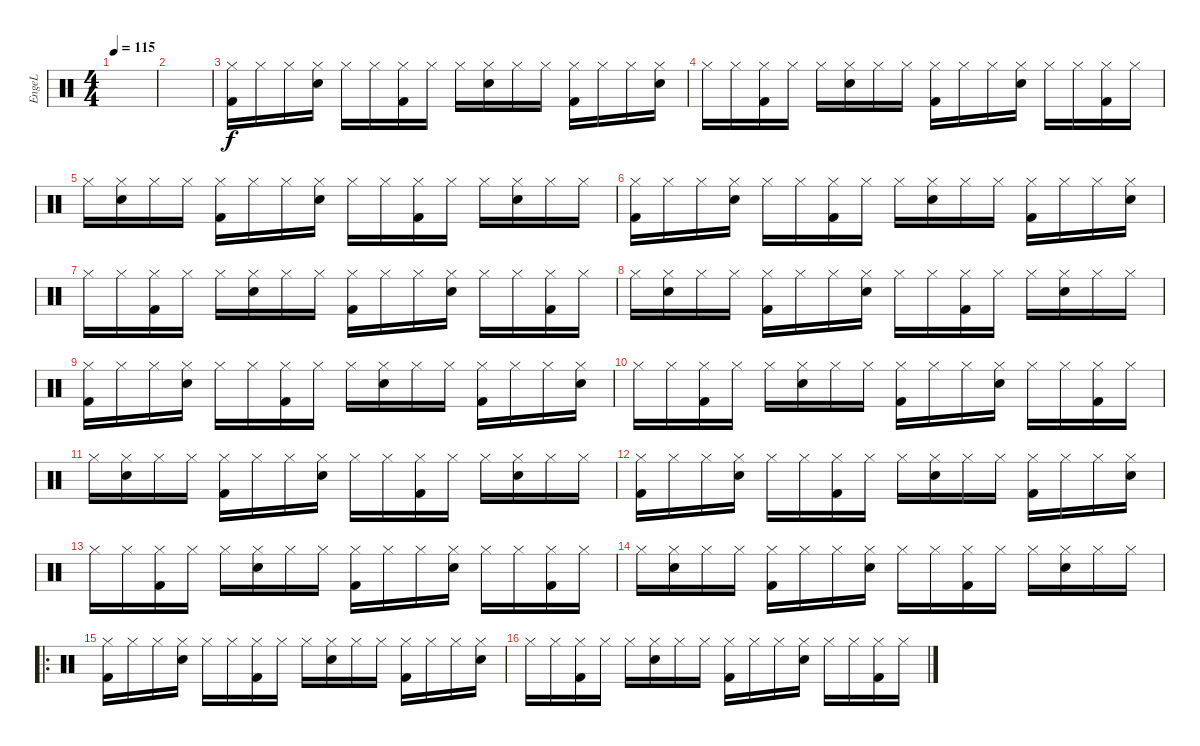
\track ("EngeL" "EngeL") {instrument percussion}
\staff {score}
\articulation defaults
\ts (4 4)
\tempo 115
\clef neutral
\ks c
|
|
("Hi-Hat (closed)" "Kick (hit) 2").16{dy f} "Hi-Hat (closed)".16 "Hi-Hat (closed)".16 ("Hi-Hat (closed)" "Snare (hit) 2").16 "Hi-Hat (closed)".16 "Hi-Hat (closed)".16 ("Hi-Hat (closed)" "Kick (hit) 2").16 "Hi-Hat (closed)".16 "Hi-Hat (closed)".16 ("Hi-Hat (closed)" "Snare (hit) 2").16 "Hi-Hat (closed)".16 "Hi-Hat (closed)".16 ("Hi-Hat (closed)" "Kick (hit) 2").16 "Hi-Hat (closed)".16 "Hi-Hat (closed)".16 ("Hi-Hat (closed)" "Snare (hit) 2").16 |
"Hi-Hat (closed)".16 "Hi-Hat (closed)".16 ("Hi-Hat (closed)" "Kick (hit) 2").16 "Hi-Hat (closed)".16 "Hi-Hat (closed)".16 ("Hi-Hat (closed)" "Snare (hit) 2").16 "Hi-Hat (closed)".16 "Hi-Hat (closed)".16 ("Hi-Hat (closed)" "Kick (hit) 2").16 "Hi-Hat (closed)".16 "Hi-Hat (closed)".16 ("Hi-Hat (closed)" "Snare (hit) 2").16 "Hi-Hat (closed)".16 "Hi-Hat (closed)".16 ("Hi-Hat (closed)" "Kick (hit) 2").16 "Hi-Hat (closed)".16 |
"Hi-Hat (closed)".16 ("Hi-Hat (closed)" "Snare (hit) 2").16 "Hi-Hat (closed)".16 "Hi-Hat (closed)".16 ("Hi-Hat (closed)" "Kick (hit) 2").16 "Hi-Hat (closed)".16 "Hi-Hat (closed)".16 ("Hi-Hat (closed)" "Snare (hit) 2").16 "Hi-Hat (closed)".16 "Hi-Hat (closed)".16 ("Hi-Hat (closed)" "Kick (hit) 2").16 "Hi-Hat (closed)".16 "Hi-Hat (closed)".16 ("Hi-Hat (closed)" "Snare (hit) 2").16 "Hi-Hat (closed)".16 "Hi-Hat (closed)".16 |
("Hi-Hat (closed)" "Kick (hit) 2").16 "Hi-Hat (closed)".16 "Hi-Hat (closed)".16 ("Hi-Hat (closed)" "Snare (hit) 2").16 "Hi-Hat (closed)".16 "Hi-Hat (closed)".16 ("Hi-Hat (closed)" "Kick (hit) 2").16 "Hi-Hat (closed)".16 "Hi-Hat (closed)".16 ("Hi-Hat (closed)" "Snare (hit) 2").16 "Hi-Hat (closed)".16 "Hi-Hat (closed)".16 ("Hi-Hat (closed)" "Kick (hit) 2").16 "Hi-Hat (closed)".16 "Hi-Hat (closed)".16 ("Hi-Hat (closed)" "Snare (hit) 2").16 |
"Hi-Hat (closed)".16 "Hi-Hat (closed)".16 ("Hi-Hat (closed)" "Kick (hit) 2").16 "Hi-Hat (closed)".16 "Hi-Hat (closed)".16 ("Hi-Hat (closed)" "Snare (hit) 2").16 "Hi-Hat (closed)".16 "Hi-Hat (closed)".16 ("Hi-Hat (closed)" "Kick (hit) 2").16 "Hi-Hat (closed)".16 "Hi-Hat (closed)".16 ("Hi-Hat (closed)" "Snare (hit) 2").16 "Hi-Hat (closed)".16 "Hi-Hat (closed)".16 ("Hi-Hat (closed)" "Kick (hit) 2").16 "Hi-Hat (closed)".16 |
"Hi-Hat (closed)".16 ("Hi-Hat (closed)" "Snare (hit) 2").16 "Hi-Hat (closed)".16 "Hi-Hat (closed)".16 ("Hi-Hat (closed)" "Kick (hit) 2").16 "Hi-Hat (closed)".16 "Hi-Hat (closed)".16 ("Hi-Hat (closed)" "Snare (hit) 2").16 "Hi-Hat (closed)".16 "Hi-Hat (closed)".16 ("Hi-Hat (closed)" "Kick (hit) 2").16 "Hi-Hat (closed)".16 "Hi-Hat (closed)".16 ("Hi-Hat (closed)" "Snare (hit) 2").16 "Hi-Hat (closed)".16 "Hi-Hat (closed)".16 |
("Hi-Hat (closed)" "Kick (hit) 2").16 "Hi-Hat (closed)".16 "Hi-Hat (closed)".16 ("Hi-Hat (closed)" "Snare (hit) 2").16 "Hi-Hat (closed)".16 "Hi-Hat (closed)".16 ("Hi-Hat (closed)" "Kick (hit) 2").16 "Hi-Hat (closed)".16 "Hi-Hat (closed)".16 ("Hi-Hat (closed)" "Snare (hit) 2").16 "Hi-Hat (closed)".16 "Hi-Hat (closed)".16 ("Hi-Hat (closed)" "Kick (hit) 2").16 "Hi-Hat (closed)".16 "Hi-Hat (closed)".16 ("Hi-Hat (closed)" "Snare (hit) 2").16 |
"Hi-Hat (closed)".16 "Hi-Hat (closed)".16 ("Hi-Hat (closed)" "Kick (hit) 2").16 "Hi-Hat (closed)".16 "Hi-Hat (closed)".16 ("Hi-Hat (closed)" "Snare (hit) 2").16 "Hi-Hat (closed)".16 "Hi-Hat (closed)".16 ("Hi-Hat (closed)" "Kick (hit) 2").16 "Hi-Hat (closed)".16 "Hi-Hat (closed)".16 ("Hi-Hat (closed)" "Snare (hit) 2").16 "Hi-Hat (closed)".16 "Hi-Hat (closed)".16 ("Hi-Hat (closed)" "Kick (hit) 2").16 "Hi-Hat (closed)".16 |
"Hi-Hat (closed)".16 ("Hi-Hat (closed)" "Snare (hit) 2").16 "Hi-Hat (closed)".16 "Hi-Hat (closed)".16 ("Hi-Hat (closed)" "Kick (hit) 2").16 "Hi-Hat (closed)".16 "Hi-Hat (closed)".16 ("Hi-Hat (closed)" "Snare (hit) 2").16 "Hi-Hat (closed)".16 "Hi-Hat (closed)".16 ("Hi-Hat (closed)" "Kick (hit) 2").16 "Hi-Hat (closed)".16 "Hi-Hat (closed)".16 ("Hi-Hat (closed)" "Snare (hit) 2").16 "Hi-Hat (closed)".16 "Hi-Hat (closed)".16 |
("Hi-Hat (closed)" "Kick (hit) 2").16 "Hi-Hat (closed)".16 "Hi-Hat (closed)".16 ("Hi-Hat (closed)" "Snare (hit) 2").16 "Hi-Hat (closed)".16 "Hi-Hat (closed)".16 ("Hi-Hat (closed)" "Kick (hit) 2").16 "Hi-Hat (closed)".16 "Hi-Hat (closed)".16 ("Hi-Hat (closed)" "Snare (hit) 2").16 "Hi-Hat (closed)".16 "Hi-Hat (closed)".16 ("Hi-Hat (closed)" "Kick (hit) 2").16 "Hi-Hat (closed)".16 "Hi-Hat (closed)".16 ("Hi-Hat (closed)" "Snare (hit) 2").16 |
"Hi-Hat (closed)".16 "Hi-Hat (closed)".16 ("Hi-Hat (closed)" "Kick (hit) 2").16 "Hi-Hat (closed)".16 "Hi-Hat (closed)".16 ("Hi-Hat (closed)" "Snare (hit) 2").16 "Hi-Hat (closed)".16 "Hi-Hat (closed)".16 ("Hi-Hat (closed)" "Kick (hit) 2").16 "Hi-Hat (closed)".16 "Hi-Hat (closed)".16 ("Hi-Hat (closed)" "Snare (hit) 2").16 "Hi-Hat (closed)".16 "Hi-Hat (closed)".16 ("Hi-Hat (closed)" "Kick (hit) 2").16 "Hi-Hat (closed)".16 |
"Hi-Hat (closed)".16 ("Hi-Hat (closed)" "Snare (hit) 2").16 "Hi-Hat (closed)".16 "Hi-Hat (closed)".16 ("Hi-Hat (closed)" "Kick (hit) 2").16 "Hi-Hat (closed)".16 "Hi-Hat (closed)".16 ("Hi-Hat (closed)" "Snare (hit) 2").16 "Hi-Hat (closed)".16 "Hi-Hat (closed)".16 ("Hi-Hat (closed)" "Kick (hit) 2").16 "Hi-Hat (closed)".16 "Hi-Hat (closed)".16 ("Hi-Hat (closed)" "Snare (hit) 2").16 "Hi-Hat (closed)".16 "Hi-Hat (closed)".16 |
\ro
("Hi-Hat (closed)" "Kick (hit) 2").16 "Hi-Hat (closed)".16 "Hi-Hat (closed)".16 ("Hi-Hat (closed)" "Snare (hit) 2").16 "Hi-Hat (closed)".16 "Hi-Hat (closed)".16 ("Hi-Hat (closed)" "Kick (hit) 2").16 "Hi-Hat (closed)".16 "Hi-Hat (closed)".16 ("Hi-Hat (closed)" "Snare (hit) 2").16 "Hi-Hat (closed)".16 "Hi-Hat (closed)".16 ("Hi-Hat (closed)" "Kick (hit) 2").16 "Hi-Hat (closed)".16 "Hi-Hat (closed)".16 ("Hi-Hat (closed)" "Snare (hit) 2").16 |
"Hi-Hat (closed)".16 "Hi-Hat (closed)".16 ("Hi-Hat (closed)" "Kick (hit) 2").16 "Hi-Hat (closed)".16 "Hi-Hat (closed)".16 ("Hi-Hat (closed)" "Snare (hit) 2").16 "Hi-Hat (closed)".16 "Hi-Hat (closed)".16 ("Hi-Hat (closed)" "Kick (hit) 2").16 "Hi-Hat (closed)".16 "Hi-Hat (closed)".16 ("Hi-Hat (closed)" "Snare (hit) 2").16 "Hi-Hat (closed)".16 "Hi-Hat (closed)".16 ("Hi-Hat (closed)" "Kick (hit) 2").16 "Hi-Hat (closed)".16
